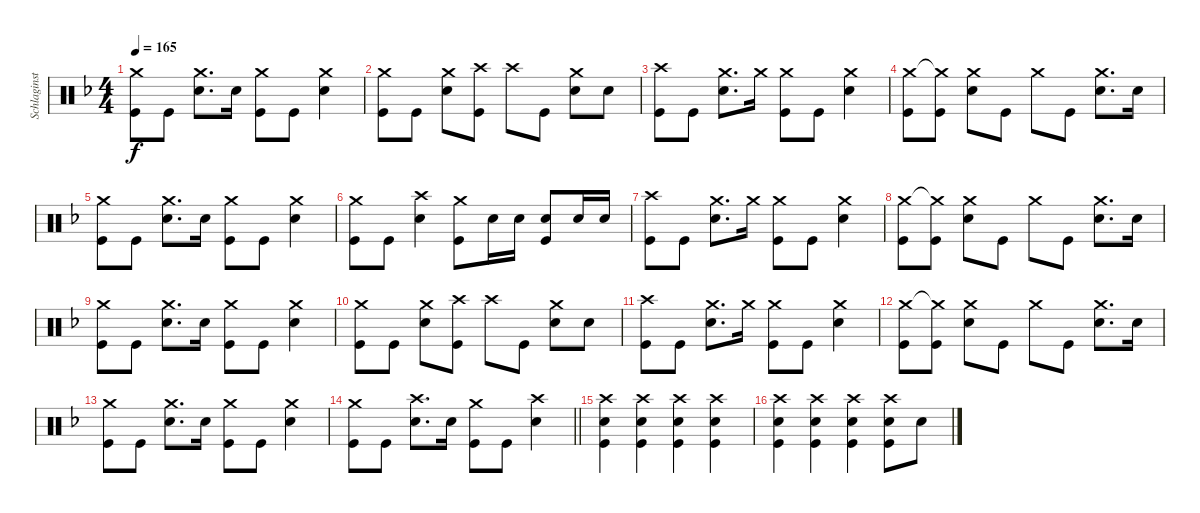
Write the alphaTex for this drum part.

\track ("Schlaginstrumente - Auswahl" "Schlaginst") {instrument percussion}
\staff {score}
\articulation defaults
\ts (4 4)
\tempo 165
\clef neutral
\ks f
("Crash medium (hit)" "Kick (hit)").8{dy f} "Kick (hit)".8 ("Crash medium (hit)" "Snare (hit) 2").8{d} "Snare (hit) 2".16 ("Crash medium (hit)" "Kick (hit)").8 "Kick (hit)".8 ("Crash medium (hit)" "Snare (hit) 2").4 |
("Crash medium (hit)" "Kick (hit)").8 "Kick (hit)".8 ("Crash medium (hit)" "Snare (hit) 2").8 ("Crash high (hit)" "Kick (hit)").8 "Crash high (hit)".8 "Kick (hit)".8 ("Crash medium (hit)" "Snare (hit) 2").8 "Snare (hit) 2".8 |
("Crash high (hit)" "Kick (hit)").8 "Kick (hit)".8 ("Crash medium (hit)" "Snare (hit) 2").8{d} "Crash medium (hit)".16 ("Crash medium (hit)" "Kick (hit)").8 "Kick (hit)".8 ("Crash medium (hit)" "Snare (hit) 2").4 |
("Crash medium (hit)" "Kick (hit)").8 ("Crash medium (hit)"{t} "Kick (hit)").8 ("Crash medium (hit)" "Snare (hit) 2").8 "Kick (hit)".8 "Crash medium (hit)".8 "Kick (hit)".8 ("Crash medium (hit)" "Snare (hit) 2").8{d} "Snare (hit) 2".16 |
("Crash medium (hit)" "Kick (hit)").8 "Kick (hit)".8 ("Crash medium (hit)" "Snare (hit) 2").8{d} "Snare (hit) 2".16 ("Crash medium (hit)" "Kick (hit)").8 "Kick (hit)".8 ("Crash medium (hit)" "Snare (hit) 2").4 |
("Crash medium (hit)" "Kick (hit)").8 "Kick (hit)".8 ("Crash high (hit)" "Snare (hit) 2").4 ("Crash medium (hit)" "Kick (hit)").8 "Snare (hit) 2".16 "Snare (hit) 2".16 ("Snare (hit) 2" "Kick (hit)").8 "Snare (hit) 2".16 "Snare (hit) 2".16 |
("Crash high (hit)" "Kick (hit)").8 "Kick (hit)".8 ("Crash medium (hit)" "Snare (hit) 2").8{d} "Crash medium (hit)".16 ("Crash medium (hit)" "Kick (hit)").8 "Kick (hit)".8 ("Crash medium (hit)" "Snare (hit) 2").4 |
("Crash medium (hit)" "Kick (hit)").8 ("Crash medium (hit)"{t} "Kick (hit)").8 ("Crash medium (hit)" "Snare (hit) 2").8 "Kick (hit)".8 "Crash medium (hit)".8 "Kick (hit)".8 ("Crash medium (hit)" "Snare (hit) 2").8{d} "Snare (hit) 2".16 |
("Crash medium (hit)" "Kick (hit)").8 "Kick (hit)".8 ("Crash medium (hit)" "Snare (hit) 2").8{d} "Snare (hit) 2".16 ("Crash medium (hit)" "Kick (hit)").8 "Kick (hit)".8 ("Crash medium (hit)" "Snare (hit) 2").4 |
("Crash medium (hit)" "Kick (hit)").8 "Kick (hit)".8 ("Crash medium (hit)" "Snare (hit) 2").8 ("Crash high (hit)" "Kick (hit)").8 "Crash high (hit)".8 "Kick (hit)".8 ("Crash medium (hit)" "Snare (hit) 2").8 "Snare (hit) 2".8 |
("Crash high (hit)" "Kick (hit)").8 "Kick (hit)".8 ("Crash medium (hit)" "Snare (hit) 2").8{d} "Crash medium (hit)".16 ("Crash medium (hit)" "Kick (hit)").8 "Kick (hit)".8 ("Crash medium (hit)" "Snare (hit) 2").4 |
("Crash medium (hit)" "Kick (hit)").8 ("Crash medium (hit)"{t} "Kick (hit)").8 ("Crash medium (hit)" "Snare (hit) 2").8 "Kick (hit)".8 "Crash medium (hit)".8 "Kick (hit)".8 ("Crash medium (hit)" "Snare (hit) 2").8{d} "Snare (hit) 2".16 |
("Crash medium (hit)" "Kick (hit)").8 "Kick (hit)".8 ("Crash medium (hit)" "Snare (hit) 2").8{d} "Snare (hit) 2".16 ("Crash medium (hit)" "Kick (hit)").8 "Kick (hit)".8 ("Crash medium (hit)" "Snare (hit) 2").4 |
\barLineRight lightlight
("Crash medium (hit)" "Kick (hit)").8 "Kick (hit)".8 ("Crash high (hit)" "Snare (hit) 2").8{d} "Snare (hit) 2".16 ("Crash medium (hit)" "Kick (hit)").8 "Kick (hit)".8 ("Crash high (hit)" "Snare (hit) 2").4 |
("Crash high (hit)" "Snare (hit) 2" "Kick (hit)").4 ("Crash high (hit)" "Snare (hit) 2" "Kick (hit)").4 ("Crash high (hit)" "Snare (hit) 2" "Kick (hit)").4 ("Crash high (hit)" "Snare (hit) 2" "Kick (hit)").4 |
("Crash high (hit)" "Snare (hit) 2" "Kick (hit)").4 ("Crash high (hit)" "Snare (hit) 2" "Kick (hit)").4 ("Crash high (hit)" "Snare (hit) 2" "Kick (hit)").4 ("Crash high (hit)" "Snare (hit) 2" "Kick (hit)").8 "Snare (hit) 2".8
